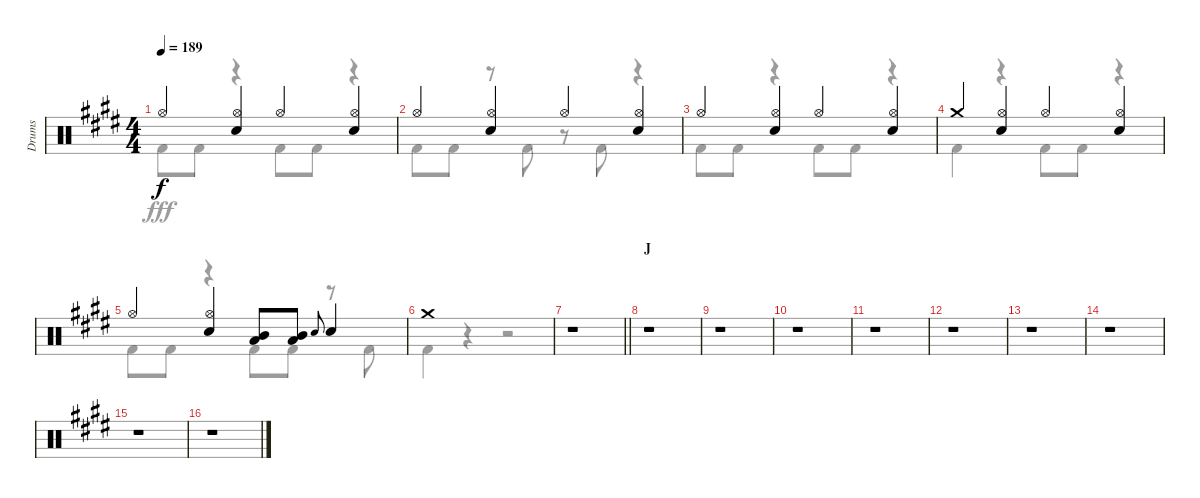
\track ("Drums" "Drums") {instrument percussion}
\staff {score}
\articulation defaults
\voice
\ts (4 4)
\tempo 189
\clef neutral
\ks e "Hi-Hat (open)".4{dy f}
("Hi-Hat (open)" "Snare (hit) 2").4 "Hi-Hat (open)".4 ("Hi-Hat (open)" "Snare (hit) 2").4 |
"Hi-Hat (open)".4 ("Hi-Hat (open)" "Snare (hit) 2").4 "Hi-Hat (open)".4 ("Hi-Hat (open)" "Snare (hit) 2").4 |
"Hi-Hat (open)".4 ("Hi-Hat (open)" "Snare (hit) 2").4 "Hi-Hat (open)".4 ("Hi-Hat (open)" "Snare (hit) 2").4 |
"Crash medium (hit)".4 ("Hi-Hat (open)" "Snare (hit) 2").4 "Hi-Hat (open)".4 ("Hi-Hat (open)" "Snare (hit) 2").4 |
"Hi-Hat (open)".4 ("Hi-Hat (open)" "Snare (hit) 2").4 ("Mid Tom (hit)" "Low Tom (hit)").8 ("Mid Tom (hit)" "Low Tom (hit)").8 "Snare (hit) 2".8{gr onbeat} "Snare (hit) 2".4 |
"Crash medium (hit)".1 |
\barLineRight lightlight
r.1 |
\section ("" "J")
r.1 |
r.1 |
r.1 |
r.1 |
r.1 |
r.1 |
r.1 |
r.1 |
r.1
\voice
\clef neutral
\ottava regular
\simile none
\ks e "Kick (hit) 2".8{dy fff} "Kick (hit) 2".8
r.4 "Kick (hit) 2".8 "Kick (hit) 2".8 r.4 |
"Kick (hit) 2".8 "Kick (hit) 2".8 r.8 "Kick (hit) 2".8 r.8 "Kick (hit) 2".8 r.4 |
"Kick (hit) 2".8 "Kick (hit) 2".8 r.4 "Kick (hit) 2".8 "Kick (hit) 2".8 r.4 |
"Kick (hit) 2".4 r.4 "Kick (hit) 2".8 "Kick (hit) 2".8 r.4 |
"Kick (hit) 2".8 "Kick (hit) 2".8 r.4 "Kick (hit) 2".8 "Kick (hit) 2".8 r.8 "Kick (hit) 2".8 |
"Kick (hit) 2".4 r.4 r.2 |
\barLineRight lightlight
r.1 |
r.1 |
r.1 |
r.1 |
r.1 |
r.1 |
r.1 |
r.1 |
r.1 |
r.1
